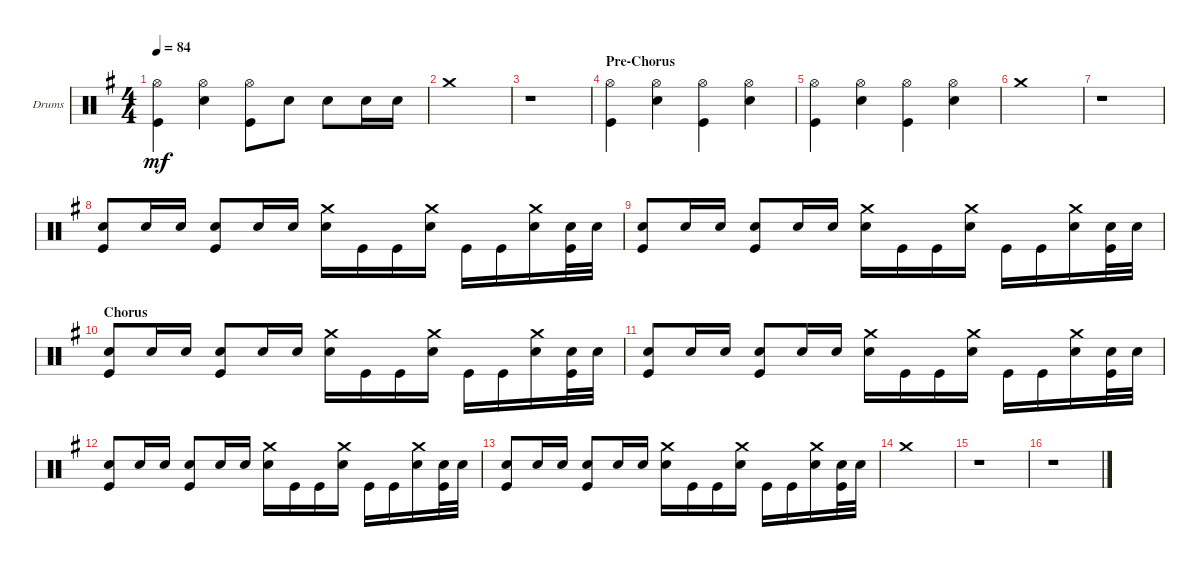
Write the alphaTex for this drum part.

\bracketExtendMode groupsimilarinstruments
\firstSystemTrackNameOrientation horizontal
\otherSystemsTrackNameOrientation horizontal
\track ("Drumkit" "Drums") {instrument percussion}
\staff {score}
\articulation defaults
\ts (4 4)
\tempo 84
\clef neutral
\scale
1.04288
\ks g
("Hi-Hat (open)" "Kick (hit)").4{dy mf} ("Hi-Hat (open)" "Snare (hit) 2").4 ("Hi-Hat (open)" "Kick (hit)").8 "Snare (hit) 2".8 "Snare (hit) 2".8 "Snare (hit) 2".16 "Snare (hit) 2".16 |
\scale
0.957125 "Crash medium (hit)".1 |
\scale
1.04288 r.1 |
\section ("" "Pre-Chorus")
\scale
0.957125 ("Hi-Hat (open)" "Kick (hit)").4 ("Hi-Hat (open)" "Snare (hit) 2").4 ("Hi-Hat (open)" "Kick (hit)").4 ("Hi-Hat (open)" "Snare (hit) 2").4 |
\scale
1.04288 ("Hi-Hat (open)" "Kick (hit)").4 ("Hi-Hat (open)" "Snare (hit) 2").4 ("Hi-Hat (open)" "Kick (hit)").4 ("Hi-Hat (open)" "Snare (hit) 2").4 |
\scale
0.957125 "Crash medium (hit)".1 |
\scale
1.04288 r.1 |
\scale
0.957125 ("Snare (hit) 2" "Kick (hit)").8 "Snare (hit) 2".16 "Snare (hit) 2".16 ("Snare (hit) 2" "Kick (hit)").8 "Snare (hit) 2".16 "Snare (hit) 2".16 ("Crash medium (hit)" "Snare (hit) 2").16 "Kick (hit)".16 "Kick (hit)".16 ("Crash medium (hit)" "Snare (hit) 2").16 "Kick (hit)".16 "Kick (hit)".16 ("Crash medium (hit)" "Snare (hit) 2").16 ("Snare (hit) 2" "Kick (hit)").32 "Snare (hit) 2".32 |
\scale
1.04288 ("Snare (hit) 2" "Kick (hit)").8 "Snare (hit) 2".16 "Snare (hit) 2".16 ("Snare (hit) 2" "Kick (hit)").8 "Snare (hit) 2".16 "Snare (hit) 2".16 ("Crash medium (hit)" "Snare (hit) 2").16 "Kick (hit)".16 "Kick (hit)".16 ("Crash medium (hit)" "Snare (hit) 2").16 "Kick (hit)".16 "Kick (hit)".16 ("Crash medium (hit)" "Snare (hit) 2").16 ("Snare (hit) 2" "Kick (hit)").32 "Snare (hit) 2".32 |
\section ("" "Chorus")
\scale
0.957125 ("Snare (hit) 2" "Kick (hit)").8 "Snare (hit) 2".16 "Snare (hit) 2".16 ("Snare (hit) 2" "Kick (hit)").8 "Snare (hit) 2".16 "Snare (hit) 2".16 ("Crash medium (hit)" "Snare (hit) 2").16 "Kick (hit)".16 "Kick (hit)".16 ("Crash medium (hit)" "Snare (hit) 2").16 "Kick (hit)".16 "Kick (hit)".16 ("Crash medium (hit)" "Snare (hit) 2").16 ("Snare (hit) 2" "Kick (hit)").32 "Snare (hit) 2".32 |
\scale
1.04288 ("Snare (hit) 2" "Kick (hit)").8 "Snare (hit) 2".16 "Snare (hit) 2".16 ("Snare (hit) 2" "Kick (hit)").8 "Snare (hit) 2".16 "Snare (hit) 2".16 ("Crash medium (hit)" "Snare (hit) 2").16 "Kick (hit)".16 "Kick (hit)".16 ("Crash medium (hit)" "Snare (hit) 2").16 "Kick (hit)".16 "Kick (hit)".16 ("Crash medium (hit)" "Snare (hit) 2").16 ("Snare (hit) 2" "Kick (hit)").32 "Snare (hit) 2".32 |
\scale
0.957125 ("Snare (hit) 2" "Kick (hit)").8 "Snare (hit) 2".16 "Snare (hit) 2".16 ("Snare (hit) 2" "Kick (hit)").8 "Snare (hit) 2".16 "Snare (hit) 2".16 ("Crash medium (hit)" "Snare (hit) 2").16 "Kick (hit)".16 "Kick (hit)".16 ("Crash medium (hit)" "Snare (hit) 2").16 "Kick (hit)".16 "Kick (hit)".16 ("Crash medium (hit)" "Snare (hit) 2").16 ("Snare (hit) 2" "Kick (hit)").32 "Snare (hit) 2".32 |
\scale
1.04288 ("Snare (hit) 2" "Kick (hit)").8 "Snare (hit) 2".16 "Snare (hit) 2".16 ("Snare (hit) 2" "Kick (hit)").8 "Snare (hit) 2".16 "Snare (hit) 2".16 ("Crash medium (hit)" "Snare (hit) 2").16 "Kick (hit)".16 "Kick (hit)".16 ("Crash medium (hit)" "Snare (hit) 2").16 "Kick (hit)".16 "Kick (hit)".16 ("Crash medium (hit)" "Snare (hit) 2").16 ("Snare (hit) 2" "Kick (hit)").32 "Snare (hit) 2".32 |
\scale
0.957125 "Crash medium (hit)".1 |
\scale
1.04288 r.1 |
\scale
0.957125 r.1
